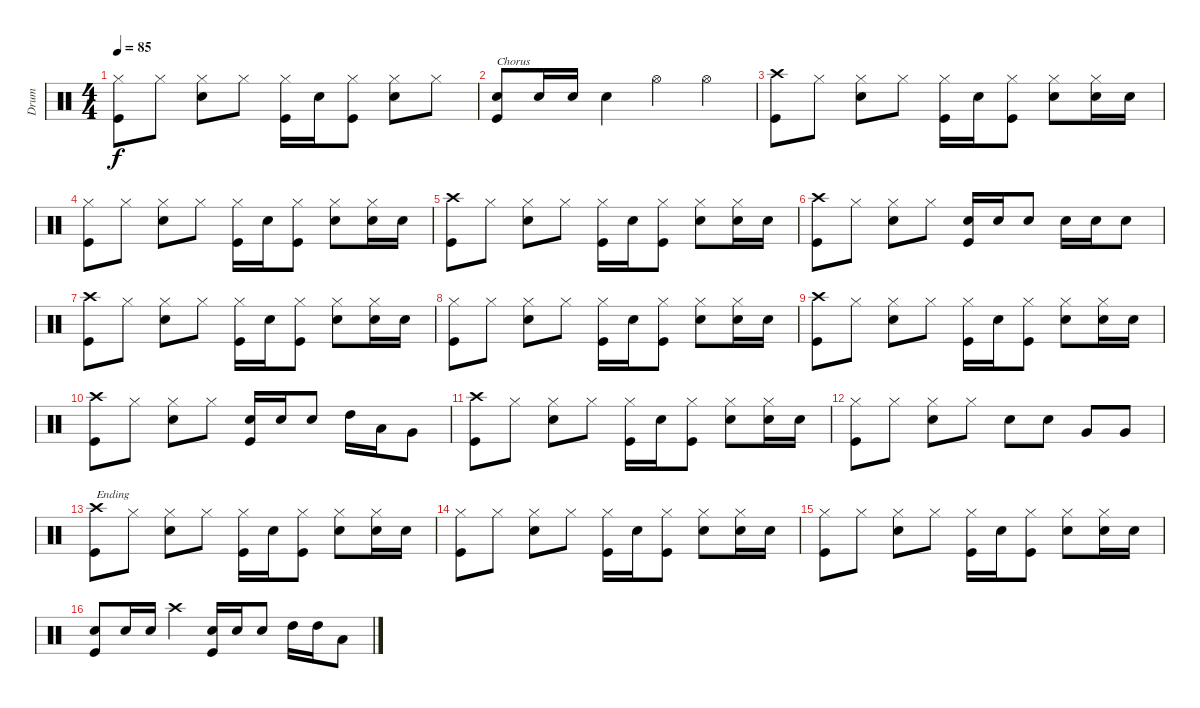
\track ("Drum" "Drum") {instrument percussion}
\staff {score}
\articulation defaults
\ts (4 4)
\tempo 85
\clef neutral
\ks c
("Hi-Hat (closed)" "Kick (hit)").8{dy f} "Hi-Hat (closed)".8 ("Hi-Hat (closed)" "Snare (hit) 2").8 "Hi-Hat (closed)".8 ("Hi-Hat (closed)" "Kick (hit)").16 "Snare (hit) 2".16 ("Hi-Hat (closed)" "Kick (hit)").8 ("Hi-Hat (closed)" "Snare (hit) 2").8 "Hi-Hat (closed)".8 |
("Snare (hit) 2" "Kick (hit)").8{txt "Chorus"} "Snare (hit) 2".16 "Snare (hit) 2".16 "Snare (hit) 2".4 "Hi-Hat (open)".4 "Hi-Hat (open)".4 |
("Crash high (hit)" "Kick (hit)").8 "Hi-Hat (closed)".8 ("Hi-Hat (closed)" "Snare (hit) 2").8 "Hi-Hat (closed)".8 ("Hi-Hat (closed)" "Kick (hit)").16 "Snare (hit) 2".16 ("Hi-Hat (closed)" "Kick (hit)").8 ("Hi-Hat (closed)" "Snare (hit) 2").8 ("Hi-Hat (closed)" "Snare (hit) 2").16 "Snare (hit) 2".16 |
("Hi-Hat (closed)" "Kick (hit)").8 "Hi-Hat (closed)".8 ("Hi-Hat (closed)" "Snare (hit) 2").8 "Hi-Hat (closed)".8 ("Hi-Hat (closed)" "Kick (hit)").16 "Snare (hit) 2".16 ("Hi-Hat (closed)" "Kick (hit)").8 ("Hi-Hat (closed)" "Snare (hit) 2").8 ("Hi-Hat (closed)" "Snare (hit) 2").16 "Snare (hit) 2".16 |
("Crash high (hit)" "Kick (hit)").8 "Hi-Hat (closed)".8 ("Hi-Hat (closed)" "Snare (hit) 2").8 "Hi-Hat (closed)".8 ("Hi-Hat (closed)" "Kick (hit)").16 "Snare (hit) 2".16 ("Hi-Hat (closed)" "Kick (hit)").8 ("Hi-Hat (closed)" "Snare (hit) 2").8 ("Hi-Hat (closed)" "Snare (hit) 2").16 "Snare (hit) 2".16 |
("Crash high (hit)" "Kick (hit)").8 "Hi-Hat (closed)".8 ("Hi-Hat (closed)" "Snare (hit) 2").8 "Hi-Hat (closed)".8 ("Snare (hit) 2" "Kick (hit)").16 "Snare (hit) 2".16 "Snare (hit) 2".8 "Snare (hit) 2".16 "Snare (hit) 2".16 "Snare (hit) 2".8 |
("Crash high (hit)" "Kick (hit)").8 "Hi-Hat (closed)".8 ("Hi-Hat (closed)" "Snare (hit) 2").8 "Hi-Hat (closed)".8 ("Hi-Hat (closed)" "Kick (hit)").16 "Snare (hit) 2".16 ("Hi-Hat (closed)" "Kick (hit)").8 ("Hi-Hat (closed)" "Snare (hit) 2").8 ("Hi-Hat (closed)" "Snare (hit) 2").16 "Snare (hit) 2".16 |
("Hi-Hat (closed)" "Kick (hit)").8 "Hi-Hat (closed)".8 ("Hi-Hat (closed)" "Snare (hit) 2").8 "Hi-Hat (closed)".8 ("Hi-Hat (closed)" "Kick (hit)").16 "Snare (hit) 2".16 ("Hi-Hat (closed)" "Kick (hit)").8 ("Hi-Hat (closed)" "Snare (hit) 2").8 ("Hi-Hat (closed)" "Snare (hit) 2").16 "Snare (hit) 2".16 |
("Crash high (hit)" "Kick (hit)").8 "Hi-Hat (closed)".8 ("Hi-Hat (closed)" "Snare (hit) 2").8 "Hi-Hat (closed)".8 ("Hi-Hat (closed)" "Kick (hit)").16 "Snare (hit) 2".16 ("Hi-Hat (closed)" "Kick (hit)").8 ("Hi-Hat (closed)" "Snare (hit) 2").8 ("Hi-Hat (closed)" "Snare (hit) 2").16 "Snare (hit) 2".16 |
("Crash high (hit)" "Kick (hit)").8 "Hi-Hat (closed)".8 ("Hi-Hat (closed)" "Snare (hit) 2").8 "Hi-Hat (closed)".8 ("Snare (hit) 2" "Kick (hit)").16 "Snare (hit) 2".16 "Snare (hit) 2".8 "High Tom (hit)".16 "Low Tom (hit)".16 "Very Low Tom (hit)".8 |
("Crash high (hit)" "Kick (hit)").8 "Hi-Hat (closed)".8 ("Hi-Hat (closed)" "Snare (hit) 2").8 "Hi-Hat (closed)".8 ("Hi-Hat (closed)" "Kick (hit)").16 "Snare (hit) 2".16 ("Hi-Hat (closed)" "Kick (hit)").8 ("Hi-Hat (closed)" "Snare (hit) 2").8 ("Hi-Hat (closed)" "Snare (hit) 2").16 "Snare (hit) 2".16 |
("Hi-Hat (closed)" "Kick (hit)").8 "Hi-Hat (closed)".8 ("Hi-Hat (closed)" "Snare (hit) 2").8 "Hi-Hat (closed)".8 "Snare (hit) 2".8 "Snare (hit) 2".8 "Very Low Tom (hit)".8 "Very Low Tom (hit)".8 |
("Crash high (hit)" "Kick (hit)").8{txt "Ending"} "Hi-Hat (closed)".8 ("Hi-Hat (closed)" "Snare (hit) 2").8 "Hi-Hat (closed)".8 ("Hi-Hat (closed)" "Kick (hit)").16 "Snare (hit) 2".16 ("Hi-Hat (closed)" "Kick (hit)").8 ("Hi-Hat (closed)" "Snare (hit) 2").8 ("Hi-Hat (closed)" "Snare (hit) 2").16 "Snare (hit) 2".16 |
("Hi-Hat (closed)" "Kick (hit)").8 "Hi-Hat (closed)".8 ("Hi-Hat (closed)" "Snare (hit) 2").8 "Hi-Hat (closed)".8 ("Hi-Hat (closed)" "Kick (hit)").16 "Snare (hit) 2".16 ("Hi-Hat (closed)" "Kick (hit)").8 ("Hi-Hat (closed)" "Snare (hit) 2").8 ("Hi-Hat (closed)" "Snare (hit) 2").16 "Snare (hit) 2".16 |
("Hi-Hat (closed)" "Kick (hit)").8 "Hi-Hat (closed)".8 ("Hi-Hat (closed)" "Snare (hit) 2").8 "Hi-Hat (closed)".8 ("Hi-Hat (closed)" "Kick (hit)").16 "Snare (hit) 2".16 ("Hi-Hat (closed)" "Kick (hit)").8 ("Hi-Hat (closed)" "Snare (hit) 2").8 ("Hi-Hat (closed)" "Snare (hit) 2").16 "Snare (hit) 2".16 |
("Snare (hit) 2" "Kick (hit)").8 "Snare (hit) 2".16 "Snare (hit) 2".16 "Crash high (hit)".4 ("Snare (hit) 2" "Kick (hit)").16 "Snare (hit) 2".16 "Snare (hit) 2".8 "High Tom (hit)".16 "High Tom (hit)".16 "Low Tom (hit)".8
